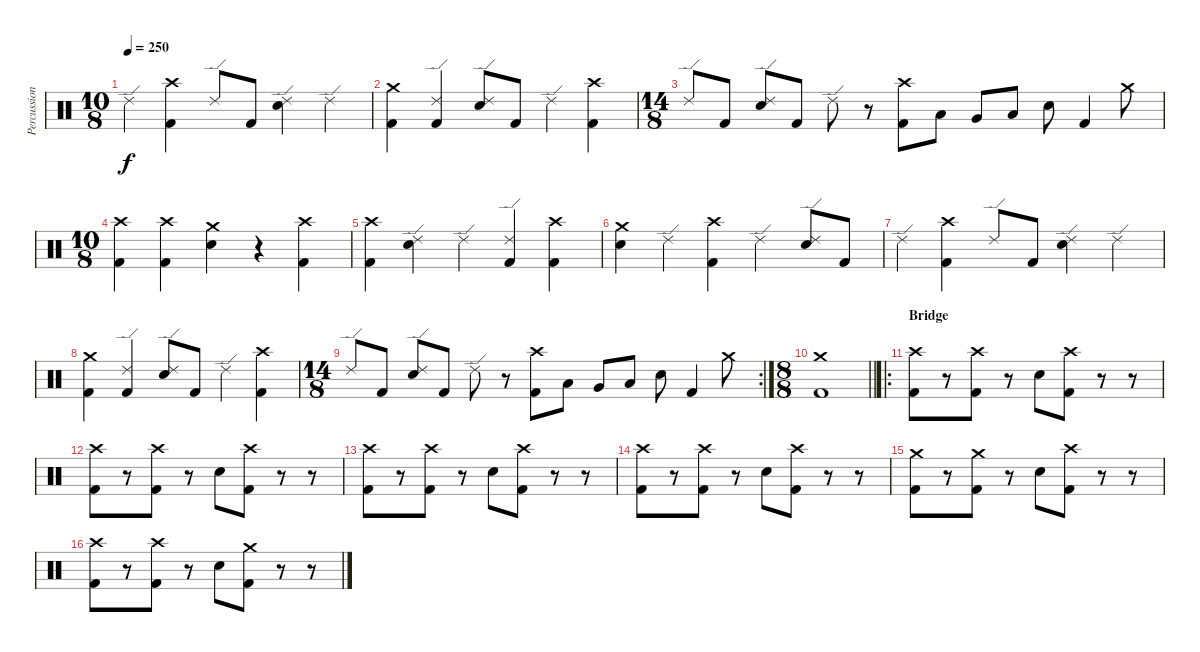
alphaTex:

\track ("Percussions" "Percussion") {instrument percussion}
\staff {score}
\articulation defaults
\ts (10 8)
\tempo 250
\clef neutral
\ks c "Ride (edge) 2".4{dy f}
("Crash high (hit)" "Kick (hit) 2").4 "Ride (edge) 2".8 "Kick (hit) 2".8 ("Ride (edge) 2" "Electric Snare (hit)").4 "Ride (edge) 2".4 |
("Crash medium (hit)" "Kick (hit) 2").4 ("Ride (edge) 2" "Kick (hit) 2").4 ("Ride (edge) 2" "Electric Snare (hit)").8 "Kick (hit) 2".8 "Ride (edge) 2".4 ("Crash high (hit)" "Kick (hit) 2").4 |
\ts (14 8)
"Ride (edge) 2".8 "Kick (hit) 2".8 ("Ride (edge) 2" "Electric Snare (hit)").8 "Kick (hit) 2".8 "Ride (edge) 2".8 r.8 ("Crash high (hit)" "Kick (hit) 2").8 "Low Tom (hit)".8 "Very Low Tom (hit)".8 "Low Floor Tom (hit)".8 "Electric Snare (hit)".8 "Kick (hit) 2".4 "Crash medium (hit)".8 |
\ts (10 8)
("Crash high (hit)" "Kick (hit) 2").4 ("Crash high (hit)" "Kick (hit) 2").4 ("Crash medium (hit)" "Electric Snare (hit)").4 r.4 ("Crash high (hit)" "Kick (hit) 2").4 |
("Crash high (hit)" "Kick (hit) 2").4 ("Ride (edge) 2" "Electric Snare (hit)").4 "Ride (edge) 2".4 ("Ride (edge) 2" "Kick (hit) 2").4 ("Crash high (hit)" "Kick (hit) 2").4 |
("Crash medium (hit)" "Electric Snare (hit)").4 "Ride (edge) 2".4 ("Crash high (hit)" "Kick (hit) 2").4 "Ride (edge) 2".4 ("Ride (edge) 2" "Electric Snare (hit)").8 "Kick (hit) 2".8 |
"Ride (edge) 2".4 ("Crash high (hit)" "Kick (hit) 2").4 "Ride (edge) 2".8 "Kick (hit) 2".8 ("Ride (edge) 2" "Electric Snare (hit)").4 "Ride (edge) 2".4 |
("Crash medium (hit)" "Kick (hit) 2").4 ("Ride (edge) 2" "Kick (hit) 2").4 ("Ride (edge) 2" "Electric Snare (hit)").8 "Kick (hit) 2".8 "Ride (edge) 2".4 ("Crash high (hit)" "Kick (hit) 2").4 |
\rc 2
\ts (14 8)
"Ride (edge) 2".8 "Kick (hit) 2".8 ("Ride (edge) 2" "Electric Snare (hit)").8 "Kick (hit) 2".8 "Ride (edge) 2".8 r.8 ("Crash high (hit)" "Kick (hit) 2").8 "Low Tom (hit)".8 "Very Low Tom (hit)".8 "Low Floor Tom (hit)".8 "Electric Snare (hit)".8 "Kick (hit) 2".4 "Crash medium (hit)".8 |
\ts (8 8)
\barLineRight lightlight
("Crash medium (hit)" "Kick (hit) 2").1 |
\ro
\section ("" "Bridge")
("Crash high (hit)" "Kick (hit) 2").8 r.8 ("Crash high (hit)" "Kick (hit) 2").8 r.8 "Electric Snare (hit)".8 ("Crash high (hit)" "Kick (hit) 2").8 r.8 r.8 |
("Crash high (hit)" "Kick (hit) 2").8 r.8 ("Crash high (hit)" "Kick (hit) 2").8 r.8 "Electric Snare (hit)".8 ("Crash high (hit)" "Kick (hit) 2").8 r.8 r.8 |
("Crash high (hit)" "Kick (hit) 2").8 r.8 ("Crash high (hit)" "Kick (hit) 2").8 r.8 "Electric Snare (hit)".8 ("Crash high (hit)" "Kick (hit) 2").8 r.8 r.8 |
("Crash high (hit)" "Kick (hit) 2").8 r.8 ("Crash high (hit)" "Kick (hit) 2").8 r.8 "Electric Snare (hit)".8 ("Crash high (hit)" "Kick (hit) 2").8 r.8 r.8 |
("Crash medium (hit)" "Kick (hit) 2").8 r.8 ("Crash medium (hit)" "Kick (hit) 2").8 r.8 "Electric Snare (hit)".8 ("Crash high (hit)" "Kick (hit) 2").8 r.8 r.8 |
("Crash high (hit)" "Kick (hit) 2").8 r.8 ("Crash high (hit)" "Kick (hit) 2").8 r.8 "Electric Snare (hit)".8 ("Crash medium (hit)" "Kick (hit) 2").8 r.8 r.8
